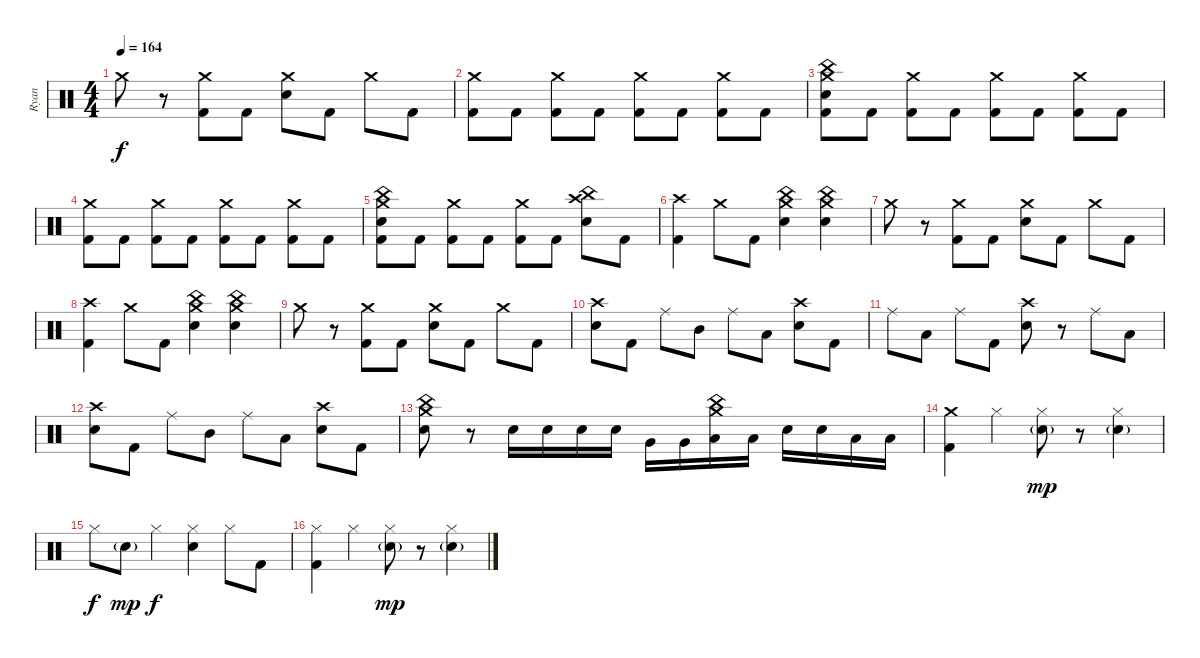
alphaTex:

\track ("Ryan" "Ryan") {instrument percussion}
\staff {score}
\articulation defaults
\ts (4 4)
\tempo 164
\clef neutral
\ks c "Crash medium (hit)".8{dy f}
r.8 ("Crash medium (hit)" "Kick (hit) 2").8 "Kick (hit) 2".8 ("Crash medium (hit)" "Electric Snare (hit)").8 "Kick (hit) 2".8 "Crash medium (hit)".8 "Kick (hit) 2".8 |
("Crash medium (hit)" "Kick (hit) 2").8 "Kick (hit) 2".8 ("Crash medium (hit)" "Kick (hit) 2").8 "Kick (hit) 2".8 ("Crash medium (hit)" "Kick (hit) 2").8 "Kick (hit) 2".8 ("Crash medium (hit)" "Kick (hit) 2").8 "Kick (hit) 2".8 |
("Crash medium (hit)" "China (hit)" "Electric Snare (hit)" "Kick (hit) 2").8 "Kick (hit) 2".8 ("Crash medium (hit)" "Kick (hit) 2").8 "Kick (hit) 2".8 ("Crash medium (hit)" "Kick (hit) 2").8 "Kick (hit) 2".8 ("Crash medium (hit)" "Kick (hit) 2").8 "Kick (hit) 2".8 |
("Crash medium (hit)" "Kick (hit) 2").8 "Kick (hit) 2".8 ("Crash medium (hit)" "Kick (hit) 2").8 "Kick (hit) 2".8 ("Crash medium (hit)" "Kick (hit) 2").8 "Kick (hit) 2".8 ("Crash medium (hit)" "Kick (hit) 2").8 "Kick (hit) 2".8 |
("Crash medium (hit)" "China (hit)" "Electric Snare (hit)" "Kick (hit) 2").8 "Kick (hit) 2".8 ("Crash medium (hit)" "Kick (hit) 2").8 "Kick (hit) 2".8 ("Crash medium (hit)" "Kick (hit) 2").8 "Kick (hit) 2".8 ("Crash high (hit)" "China (hit)" "Electric Snare (hit)").8 "Kick (hit) 2".8 |
("Crash high (hit)" "Kick (hit) 2").4 "Crash medium (hit)".8 "Kick (hit) 2".8 ("Crash medium (hit)" "China (hit)" "Electric Snare (hit)").4 ("Crash medium (hit)" "China (hit)" "Electric Snare (hit)").4 |
"Crash medium (hit)".8 r.8 ("Crash medium (hit)" "Kick (hit) 2").8 "Kick (hit) 2".8 ("Crash medium (hit)" "Electric Snare (hit)").8 "Kick (hit) 2".8 "Crash medium (hit)".8 "Kick (hit) 2".8 |
("Crash high (hit)" "Kick (hit) 2").4 "Crash medium (hit)".8 "Kick (hit) 2".8 ("Crash medium (hit)" "China (hit)" "Electric Snare (hit)").4 ("Crash medium (hit)" "China (hit)" "Electric Snare (hit)").4 |
"Crash medium (hit)".8 r.8 ("Crash medium (hit)" "Kick (hit) 2").8 "Kick (hit) 2".8 ("Crash medium (hit)" "Electric Snare (hit)").8 "Kick (hit) 2".8 "Crash medium (hit)".8 "Kick (hit) 2".8 |
("Crash high (hit)" "Electric Snare (hit)").8 "Kick (hit) 2".8 "Ride (middle)".8 "Mid Tom (hit)".8 "Ride (middle)".8 "Low Tom (hit)".8 ("Crash high (hit)" "Electric Snare (hit)").8 "Kick (hit) 2".8 |
"Ride (middle)".8 "Low Tom (hit)".8 "Ride (middle)".8 "Kick (hit) 2".8 ("Crash high (hit)" "Electric Snare (hit)").8 r.8 "Ride (middle)".8 "Low Floor Tom (hit)".8 |
("Crash high (hit)" "Electric Snare (hit)").8 "Kick (hit) 2".8 "Ride (middle)".8 "Mid Tom (hit)".8 "Ride (middle)".8 "Low Tom (hit)".8 ("Crash high (hit)" "Electric Snare (hit)").8 "Kick (hit) 2".8 |
("China (hit)" "Crash medium (hit)" "Electric Snare (hit)").8 r.8 "Electric Snare (hit)".16 "Electric Snare (hit)".16 "Electric Snare (hit)".16 "Electric Snare (hit)".16 "Very Low Tom (hit)".16 "Very Low Tom (hit)".16 ("China (hit)" "Crash medium (hit)" "Low Floor Tom (hit)").16 "Low Floor Tom (hit)".16 "Electric Snare (hit)".16 "Electric Snare (hit)".16 "Low Floor Tom (hit)".16 "Low Floor Tom (hit)".16 |
("Crash medium (hit)" "Kick (hit) 2").4 "Hi-Hat (closed)".4 ("Hi-Hat (closed)" "Electric Snare (hit)"{g}).8{dy mp} r.8 ("Hi-Hat (closed)" "Electric Snare (hit)"{g}).4 |
"Hi-Hat (closed)".8{dy f} "Electric Snare (hit)"{g}.8{dy mp} "Hi-Hat (closed)".4{dy f} ("Hi-Hat (closed)" "Electric Snare (hit)").4 "Hi-Hat (closed)".8 "Kick (hit) 2".8 |
("Hi-Hat (closed)" "Kick (hit) 2").4 "Hi-Hat (closed)".4 ("Hi-Hat (closed)" "Electric Snare (hit)"{g}).8{dy mp} r.8 ("Hi-Hat (closed)" "Electric Snare (hit)"{g}).4
